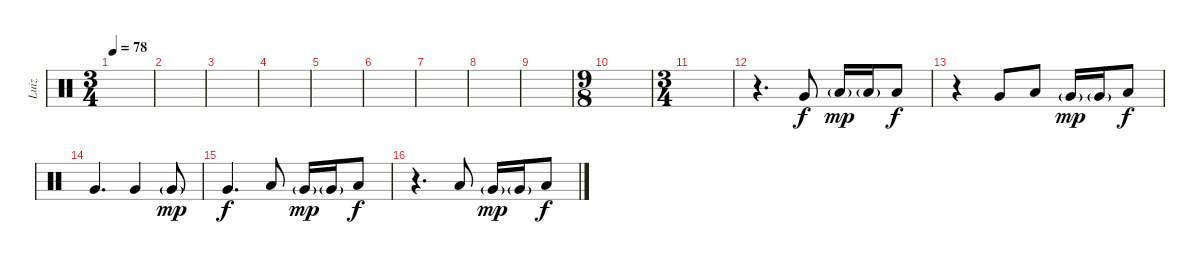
\track ("Luiz" "Luiz") {instrument percussion}
\staff {score}
\articulation defaults
\ts (3 4)
\tempo 78
\clef neutral
\ks c
|
|
|
|
|
|
|
|
|
\ts (9 8)
|
\ts (3 4)
|
r.4{d volume 10} "Very Low Tom (hit)".8{volume 10} "Low Tom (hit)"{g}.16{dy mp} "Low Tom (hit)"{g}.16 "Low Tom (hit)".8{dy f} |
r.4 "Very Low Tom (hit)".8 "Low Tom (hit)".8 "Very Low Tom (hit)"{g}.16{dy mp} "Very Low Tom (hit)"{g}.16 "Low Tom (hit)".8{dy f} |
"Very Low Tom (hit)".4{d} "Very Low Tom (hit)".4 "Very Low Tom (hit)"{g}.8{dy mp} |
"Very Low Tom (hit)".4{d dy f} "Low Tom (hit)".8 "Very Low Tom (hit)"{g}.16{dy mp} "Very Low Tom (hit)"{g}.16 "Low Tom (hit)".8{dy f} |
r.4{d} "Low Tom (hit)".8 "Very Low Tom (hit)"{g}.16{dy mp} "Very Low Tom (hit)"{g}.16 "Low Tom (hit)".8{dy f}
